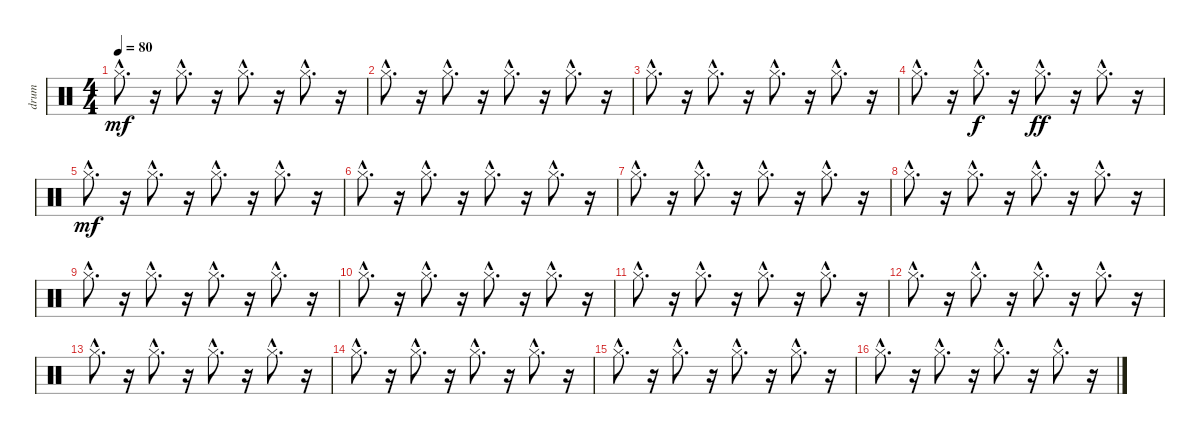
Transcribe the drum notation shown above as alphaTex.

\track ("drum" "drum") {instrument percussion}
\staff {score}
\articulation defaults
\ts (4 4)
\tempo 80
\clef neutral
\ks c "Hi-Hat (closed)"{hac}.8{d dy mf}
r.16 "Hi-Hat (closed)"{hac}.8{d} r.16 "Hi-Hat (closed)"{hac}.8{d} r.16 "Hi-Hat (closed)"{hac}.8{d} r.16 |
"Hi-Hat (closed)"{hac}.8{d} r.16 "Hi-Hat (closed)"{hac}.8{d} r.16 "Hi-Hat (closed)"{hac}.8{d} r.16 "Hi-Hat (closed)"{hac}.8{d} r.16 |
"Hi-Hat (closed)"{hac}.8{d} r.16 "Hi-Hat (closed)"{hac}.8{d} r.16 "Hi-Hat (closed)"{hac}.8{d} r.16 "Hi-Hat (closed)"{hac}.8{d} r.16 |
"Hi-Hat (closed)"{hac}.8{d} r.16 "Hi-Hat (closed)"{hac}.8{d dy f} r.16 "Hi-Hat (closed)"{hac}.8{d dy ff} r.16 "Hi-Hat (closed)"{hac}.8{d} r.16 |
"Hi-Hat (closed)"{hac}.8{d dy mf} r.16 "Hi-Hat (closed)"{hac}.8{d} r.16 "Hi-Hat (closed)"{hac}.8{d} r.16 "Hi-Hat (closed)"{hac}.8{d} r.16 |
"Hi-Hat (closed)"{hac}.8{d} r.16 "Hi-Hat (closed)"{hac}.8{d} r.16 "Hi-Hat (closed)"{hac}.8{d} r.16 "Hi-Hat (closed)"{hac}.8{d} r.16 |
"Hi-Hat (closed)"{hac}.8{d} r.16 "Hi-Hat (closed)"{hac}.8{d} r.16 "Hi-Hat (closed)"{hac}.8{d} r.16 "Hi-Hat (closed)"{hac}.8{d} r.16 |
"Hi-Hat (closed)"{hac}.8{d} r.16 "Hi-Hat (closed)"{hac}.8{d} r.16 "Hi-Hat (closed)"{hac}.8{d} r.16 "Hi-Hat (closed)"{hac}.8{d} r.16 |
"Hi-Hat (closed)"{hac}.8{d} r.16 "Hi-Hat (closed)"{hac}.8{d} r.16 "Hi-Hat (closed)"{hac}.8{d} r.16 "Hi-Hat (closed)"{hac}.8{d} r.16 |
"Hi-Hat (closed)"{hac}.8{d} r.16 "Hi-Hat (closed)"{hac}.8{d} r.16 "Hi-Hat (closed)"{hac}.8{d} r.16 "Hi-Hat (closed)"{hac}.8{d} r.16 |
"Hi-Hat (closed)"{hac}.8{d} r.16 "Hi-Hat (closed)"{hac}.8{d} r.16 "Hi-Hat (closed)"{hac}.8{d} r.16 "Hi-Hat (closed)"{hac}.8{d} r.16 |
"Hi-Hat (closed)"{hac}.8{d} r.16 "Hi-Hat (closed)"{hac}.8{d} r.16 "Hi-Hat (closed)"{hac}.8{d} r.16 "Hi-Hat (closed)"{hac}.8{d} r.16 |
"Hi-Hat (closed)"{hac}.8{d} r.16 "Hi-Hat (closed)"{hac}.8{d} r.16 "Hi-Hat (closed)"{hac}.8{d} r.16 "Hi-Hat (closed)"{hac}.8{d} r.16 |
"Hi-Hat (closed)"{hac}.8{d} r.16 "Hi-Hat (closed)"{hac}.8{d} r.16 "Hi-Hat (closed)"{hac}.8{d} r.16 "Hi-Hat (closed)"{hac}.8{d} r.16 |
"Hi-Hat (closed)"{hac}.8{d} r.16 "Hi-Hat (closed)"{hac}.8{d} r.16 "Hi-Hat (closed)"{hac}.8{d} r.16 "Hi-Hat (closed)"{hac}.8{d} r.16 |
"Hi-Hat (closed)"{hac}.8{d} r.16 "Hi-Hat (closed)"{hac}.8{d} r.16 "Hi-Hat (closed)"{hac}.8{d} r.16 "Hi-Hat (closed)"{hac}.8{d} r.16
